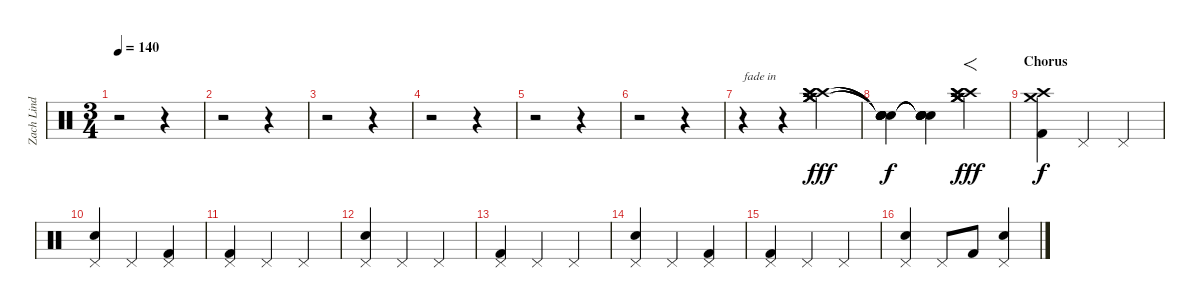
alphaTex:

\track ("Zach Lind - Drums" "Zach Lind ") {instrument percussion}
\staff {score}
\articulation defaults
\ts (3 4)
\tempo 140
\clef neutral
\ks c
r.2{dy f} r.4 |
r.2 r.4 |
r.2 r.4 |
r.2 r.4 |
r.2 r.4 |
r.2 r.4 |
r.4{txt "fade in" volume 0} r.4 ("Crash high (hit)" "Crash medium (hit)" "Crash high (hit)" "Crash medium (hit)" "Crash high (hit)" "Crash medium (hit)").4{dy fff volume 16} |
("Snare (hit)"{t} "Snare (hit)"{t} "Snare (hit)"{t} "Snare (hit)"{t} "Snare (hit)"{t} "Snare (hit)"{t}).4{dy f} ("Snare (hit)"{t} "Snare (hit)"{t} "Snare (hit)"{t} "Snare (hit)"{t} "Snare (hit)"{t} "Snare (hit)"{t}).4 ("Crash high (hit)" "Crash medium (hit)" "Crash high (hit)" "Crash medium (hit)" "Crash high (hit)" "Crash medium (hit)").4{f dy fff} |
\section ("" "Chorus")
("Crash high (hit)" "Crash medium (hit)" "Kick (hit) 2").4{dy f} "Pedal Hi-Hat (hit)".4 "Pedal Hi-Hat (hit)".4 |
("Pedal Hi-Hat (hit)" "Electric Snare (hit)").4 "Pedal Hi-Hat (hit)".4 ("Pedal Hi-Hat (hit)" "Kick (hit) 2").4 |
("Pedal Hi-Hat (hit)" "Kick (hit) 2").4 "Pedal Hi-Hat (hit)".4 "Pedal Hi-Hat (hit)".4 |
("Pedal Hi-Hat (hit)" "Electric Snare (hit)").4 "Pedal Hi-Hat (hit)".4 "Pedal Hi-Hat (hit)".4 |
("Pedal Hi-Hat (hit)" "Kick (hit) 2").4 "Pedal Hi-Hat (hit)".4 "Pedal Hi-Hat (hit)".4 |
("Pedal Hi-Hat (hit)" "Electric Snare (hit)").4 "Pedal Hi-Hat (hit)".4 ("Pedal Hi-Hat (hit)" "Kick (hit) 2").4 |
("Pedal Hi-Hat (hit)" "Kick (hit) 2").4 "Pedal Hi-Hat (hit)".4 "Pedal Hi-Hat (hit)".4 |
("Pedal Hi-Hat (hit)" "Electric Snare (hit)").4 "Pedal Hi-Hat (hit)".8 "Kick (hit) 2".8 ("Pedal Hi-Hat (hit)" "Electric Snare (hit)").4
